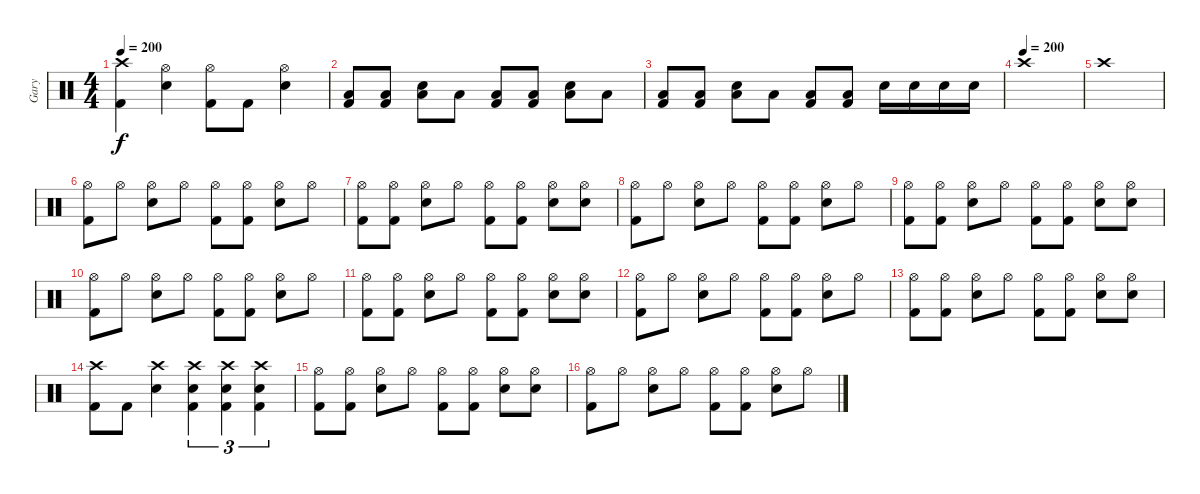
\track ("Gary" "Gary") {instrument percussion}
\staff {score}
\articulation defaults
\ts (4 4)
\tempo 200
\clef neutral
\ks c
("Crash high (hit)" "Kick (hit) 2").4{dy f} ("Hi-Hat (open)" "Electric Snare (hit)").4 ("Hi-Hat (open)" "Kick (hit) 2").8 "Kick (hit) 2".8 ("Hi-Hat (open)" "Electric Snare (hit)").4 |
("Low Floor Tom (hit)" "Kick (hit) 2").8 ("Low Floor Tom (hit)" "Kick (hit) 2").8 ("Low Floor Tom (hit)" "Electric Snare (hit)").8 "Low Floor Tom (hit)".8 ("Low Floor Tom (hit)" "Kick (hit) 2").8 ("Low Floor Tom (hit)" "Kick (hit) 2").8 ("Low Floor Tom (hit)" "Electric Snare (hit)").8 "Low Floor Tom (hit)".8 |
("Low Floor Tom (hit)" "Kick (hit) 2").8 ("Low Floor Tom (hit)" "Kick (hit) 2").8 ("Low Floor Tom (hit)" "Electric Snare (hit)").8 "Low Floor Tom (hit)".8 ("Low Floor Tom (hit)" "Kick (hit) 2").8 ("Low Floor Tom (hit)" "Kick (hit) 2").8 "Electric Snare (hit)".16 "Electric Snare (hit)".16 "Electric Snare (hit)".16 "Electric Snare (hit)".16 |
\tempo (200)
"Crash high (hit)".1 |
"Crash high (hit)".1 |
("Hi-Hat (open)" "Kick (hit) 2").8 "Hi-Hat (open)".8 ("Hi-Hat (open)" "Electric Snare (hit)").8 "Hi-Hat (open)".8 ("Hi-Hat (open)" "Kick (hit) 2").8 ("Hi-Hat (open)" "Kick (hit) 2").8 ("Hi-Hat (open)" "Electric Snare (hit)").8 "Hi-Hat (open)".8 |
("Hi-Hat (open)" "Kick (hit) 2").8 ("Hi-Hat (open)" "Kick (hit) 2").8 ("Hi-Hat (open)" "Electric Snare (hit)").8 "Hi-Hat (open)".8 ("Hi-Hat (open)" "Kick (hit) 2").8 ("Hi-Hat (open)" "Kick (hit) 2").8 ("Hi-Hat (open)" "Electric Snare (hit)").8 ("Hi-Hat (open)" "Electric Snare (hit)").8 |
("Hi-Hat (open)" "Kick (hit) 2").8 "Hi-Hat (open)".8 ("Hi-Hat (open)" "Electric Snare (hit)").8 "Hi-Hat (open)".8 ("Hi-Hat (open)" "Kick (hit) 2").8 ("Hi-Hat (open)" "Kick (hit) 2").8 ("Hi-Hat (open)" "Electric Snare (hit)").8 "Hi-Hat (open)".8 |
("Hi-Hat (open)" "Kick (hit) 2").8 ("Hi-Hat (open)" "Kick (hit) 2").8 ("Hi-Hat (open)" "Electric Snare (hit)").8 "Hi-Hat (open)".8 ("Hi-Hat (open)" "Kick (hit) 2").8 ("Hi-Hat (open)" "Kick (hit) 2").8 ("Hi-Hat (open)" "Electric Snare (hit)").8 ("Hi-Hat (open)" "Electric Snare (hit)").8 |
("Hi-Hat (open)" "Kick (hit) 2").8 "Hi-Hat (open)".8 ("Hi-Hat (open)" "Electric Snare (hit)").8 "Hi-Hat (open)".8 ("Hi-Hat (open)" "Kick (hit) 2").8 ("Hi-Hat (open)" "Kick (hit) 2").8 ("Hi-Hat (open)" "Electric Snare (hit)").8 "Hi-Hat (open)".8 |
("Hi-Hat (open)" "Kick (hit) 2").8 ("Hi-Hat (open)" "Kick (hit) 2").8 ("Hi-Hat (open)" "Electric Snare (hit)").8 "Hi-Hat (open)".8 ("Hi-Hat (open)" "Kick (hit) 2").8 ("Hi-Hat (open)" "Kick (hit) 2").8 ("Hi-Hat (open)" "Electric Snare (hit)").8 ("Hi-Hat (open)" "Electric Snare (hit)").8 |
("Hi-Hat (open)" "Kick (hit) 2").8 "Hi-Hat (open)".8 ("Hi-Hat (open)" "Electric Snare (hit)").8 "Hi-Hat (open)".8 ("Hi-Hat (open)" "Kick (hit) 2").8 ("Hi-Hat (open)" "Kick (hit) 2").8 ("Hi-Hat (open)" "Electric Snare (hit)").8 "Hi-Hat (open)".8 |
("Hi-Hat (open)" "Kick (hit) 2").8 ("Hi-Hat (open)" "Kick (hit) 2").8 ("Hi-Hat (open)" "Electric Snare (hit)").8 "Hi-Hat (open)".8 ("Hi-Hat (open)" "Kick (hit) 2").8 ("Hi-Hat (open)" "Kick (hit) 2").8 ("Hi-Hat (open)" "Electric Snare (hit)").8 ("Hi-Hat (open)" "Electric Snare (hit)").8 |
("Crash high (hit)" "Kick (hit) 2").8 "Kick (hit) 2".8 ("Crash high (hit)" "Electric Snare (hit)").4 ("Crash high (hit)" "Electric Snare (hit)" "Kick (hit) 2").4{tu (3 2)} ("Crash high (hit)" "Electric Snare (hit)" "Kick (hit) 2").4{tu (3 2)} ("Crash high (hit)" "Electric Snare (hit)" "Kick (hit) 2").4{tu (3 2)} |
("Hi-Hat (open)" "Kick (hit) 2").8 ("Hi-Hat (open)" "Kick (hit) 2").8 ("Hi-Hat (open)" "Electric Snare (hit)").8 "Hi-Hat (open)".8 ("Hi-Hat (open)" "Kick (hit) 2").8 ("Hi-Hat (open)" "Kick (hit) 2").8 ("Hi-Hat (open)" "Electric Snare (hit)").8 ("Hi-Hat (open)" "Electric Snare (hit)").8 |
("Hi-Hat (open)" "Kick (hit) 2").8 "Hi-Hat (open)".8 ("Hi-Hat (open)" "Electric Snare (hit)").8 "Hi-Hat (open)".8 ("Hi-Hat (open)" "Kick (hit) 2").8 ("Hi-Hat (open)" "Kick (hit) 2").8 ("Hi-Hat (open)" "Electric Snare (hit)").8 "Hi-Hat (open)".8
